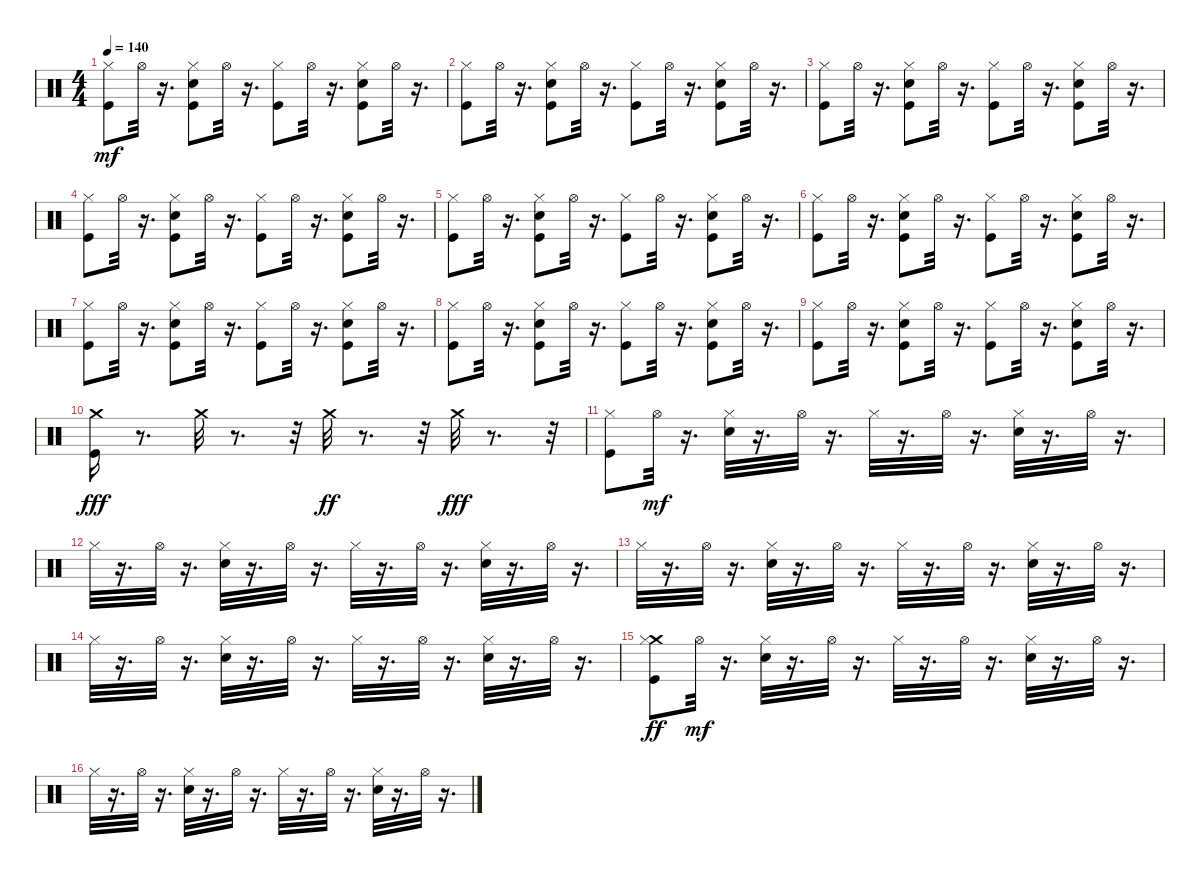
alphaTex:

\track "" {instrument percussion}
\staff {score}
\articulation defaults
\ts (4 4)
\tempo 140
\clef neutral
\ks c
("Kick (hit)" "Hi-Hat (closed)").8{dy mf} "Hi-Hat (open)".32 r.16{d} ("Kick (hit)" "Hi-Hat (closed)" "Hand Clap (hit)").8 "Hi-Hat (open)".32 r.16{d} ("Kick (hit)" "Hi-Hat (closed)").8 "Hi-Hat (open)".32 r.16{d} ("Kick (hit)" "Hand Clap (hit)" "Hi-Hat (closed)").8 "Hi-Hat (open)".32 r.16{d} |
("Kick (hit)" "Hi-Hat (closed)").8 "Hi-Hat (open)".32 r.16{d} ("Kick (hit)" "Hi-Hat (closed)" "Hand Clap (hit)").8 "Hi-Hat (open)".32 r.16{d} ("Kick (hit)" "Hi-Hat (closed)").8 "Hi-Hat (open)".32 r.16{d} ("Kick (hit)" "Hi-Hat (closed)" "Hand Clap (hit)").8 "Hi-Hat (open)".32 r.16{d} |
("Kick (hit)" "Hi-Hat (closed)").8 "Hi-Hat (open)".32 r.16{d} ("Kick (hit)" "Hand Clap (hit)" "Hi-Hat (closed)").8 "Hi-Hat (open)".32 r.16{d} ("Kick (hit)" "Hi-Hat (closed)").8 "Hi-Hat (open)".32 r.16{d} ("Kick (hit)" "Hi-Hat (closed)" "Hand Clap (hit)").8 "Hi-Hat (open)".32 r.16{d} |
("Kick (hit)" "Hi-Hat (closed)").8 "Hi-Hat (open)".32 r.16{d} ("Kick (hit)" "Hi-Hat (closed)" "Hand Clap (hit)").8 "Hi-Hat (open)".32 r.16{d} ("Kick (hit)" "Hi-Hat (closed)").8 "Hi-Hat (open)".32 r.16{d} ("Kick (hit)" "Hand Clap (hit)" "Hi-Hat (closed)").8 "Hi-Hat (open)".32 r.16{d} |
("Kick (hit)" "Hi-Hat (closed)").8 "Hi-Hat (open)".32 r.16{d} ("Kick (hit)" "Hi-Hat (closed)" "Hand Clap (hit)").8 "Hi-Hat (open)".32 r.16{d} ("Kick (hit)" "Hi-Hat (closed)").8 "Hi-Hat (open)".32 r.16{d} ("Kick (hit)" "Hand Clap (hit)" "Hi-Hat (closed)").8 "Hi-Hat (open)".32 r.16{d} |
("Kick (hit)" "Hi-Hat (closed)").8 "Hi-Hat (open)".32 r.16{d} ("Kick (hit)" "Hand Clap (hit)" "Hi-Hat (closed)").8 "Hi-Hat (open)".32 r.16{d} ("Kick (hit)" "Hi-Hat (closed)").8 "Hi-Hat (open)".32 r.16{d} ("Kick (hit)" "Hand Clap (hit)" "Hi-Hat (closed)").8 "Hi-Hat (open)".32 r.16{d} |
("Kick (hit)" "Hi-Hat (closed)").8 "Hi-Hat (open)".32 r.16{d} ("Kick (hit)" "Hand Clap (hit)" "Hi-Hat (closed)").8 "Hi-Hat (open)".32 r.16{d} ("Kick (hit)" "Hi-Hat (closed)").8 "Hi-Hat (open)".32 r.16{d} ("Kick (hit)" "Hand Clap (hit)" "Hi-Hat (closed)").8 "Hi-Hat (open)".32 r.16{d} |
("Kick (hit)" "Hi-Hat (closed)").8 "Hi-Hat (open)".32 r.16{d} ("Kick (hit)" "Hi-Hat (closed)" "Hand Clap (hit)").8 "Hi-Hat (open)".32 r.16{d} ("Kick (hit)" "Hi-Hat (closed)").8 "Hi-Hat (open)".32 r.16{d} ("Kick (hit)" "Hi-Hat (closed)" "Hand Clap (hit)").8 "Hi-Hat (open)".32 r.16{d} |
("Kick (hit)" "Hi-Hat (closed)").8 "Hi-Hat (open)".32 r.16{d} ("Kick (hit)" "Hand Clap (hit)" "Hi-Hat (closed)").8 "Hi-Hat (open)".32 r.16{d} ("Kick (hit)" "Hi-Hat (closed)").8 "Hi-Hat (open)".32 r.16{d} ("Kick (hit)" "Hi-Hat (closed)" "Hand Clap (hit)").8 "Hi-Hat (open)".32 r.16{d} |
("Crash medium (hit)" "Kick (hit)").16{dy fff} r.8{d} "Crash medium (hit)".32 r.8{d} r.32 "Crash medium (hit)".32{dy ff} r.8{d} r.32 "Crash medium (hit)".32{dy fff} r.8{d} r.32 |
("Hi-Hat (closed)" "Kick (hit)").8 "Hi-Hat (open)".32{dy mf} r.16{d} ("Hi-Hat (closed)" "Hand Clap (hit)").32 r.16{d} "Hi-Hat (open)".32 r.16{d} "Hi-Hat (closed)".32 r.16{d} "Hi-Hat (open)".32 r.16{d} ("Hand Clap (hit)" "Hi-Hat (closed)").32 r.16{d} "Hi-Hat (open)".32 r.16{d} |
"Hi-Hat (closed)".32 r.16{d} "Hi-Hat (open)".32 r.16{d} ("Hi-Hat (closed)" "Hand Clap (hit)").32 r.16{d} "Hi-Hat (open)".32 r.16{d} "Hi-Hat (closed)".32 r.16{d} "Hi-Hat (open)".32 r.16{d} ("Hi-Hat (closed)" "Hand Clap (hit)").32 r.16{d} "Hi-Hat (open)".32 r.16{d} |
"Hi-Hat (closed)".32 r.16{d} "Hi-Hat (open)".32 r.16{d} ("Hi-Hat (closed)" "Hand Clap (hit)").32 r.16{d} "Hi-Hat (open)".32 r.16{d} "Hi-Hat (closed)".32 r.16{d} "Hi-Hat (open)".32 r.16{d} ("Hi-Hat (closed)" "Hand Clap (hit)").32 r.16{d} "Hi-Hat (open)".32 r.16{d} |
"Hi-Hat (closed)".32 r.16{d} "Hi-Hat (open)".32 r.16{d} ("Hand Clap (hit)" "Hi-Hat (closed)").32 r.16{d} "Hi-Hat (open)".32 r.16{d} "Hi-Hat (closed)".32 r.16{d} "Hi-Hat (open)".32 r.16{d} ("Hand Clap (hit)" "Hi-Hat (closed)").32 r.16{d} "Hi-Hat (open)".32 r.16{d} |
("Crash medium (hit)" "Hi-Hat (closed)" "Kick (hit)").8{dy ff} "Hi-Hat (open)".32{dy mf} r.16{d} ("Hi-Hat (closed)" "Hand Clap (hit)").32 r.16{d} "Hi-Hat (open)".32 r.16{d} "Hi-Hat (closed)".32 r.16{d} "Hi-Hat (open)".32 r.16{d} ("Hi-Hat (closed)" "Hand Clap (hit)").32 r.16{d} "Hi-Hat (open)".32 r.16{d} |
"Hi-Hat (closed)".32 r.16{d} "Hi-Hat (open)".32 r.16{d} ("Hand Clap (hit)" "Hi-Hat (closed)").32 r.16{d} "Hi-Hat (open)".32 r.16{d} "Hi-Hat (closed)".32 r.16{d} "Hi-Hat (open)".32 r.16{d} ("Hi-Hat (closed)" "Hand Clap (hit)").32 r.16{d} "Hi-Hat (open)".32 r.16{d}
